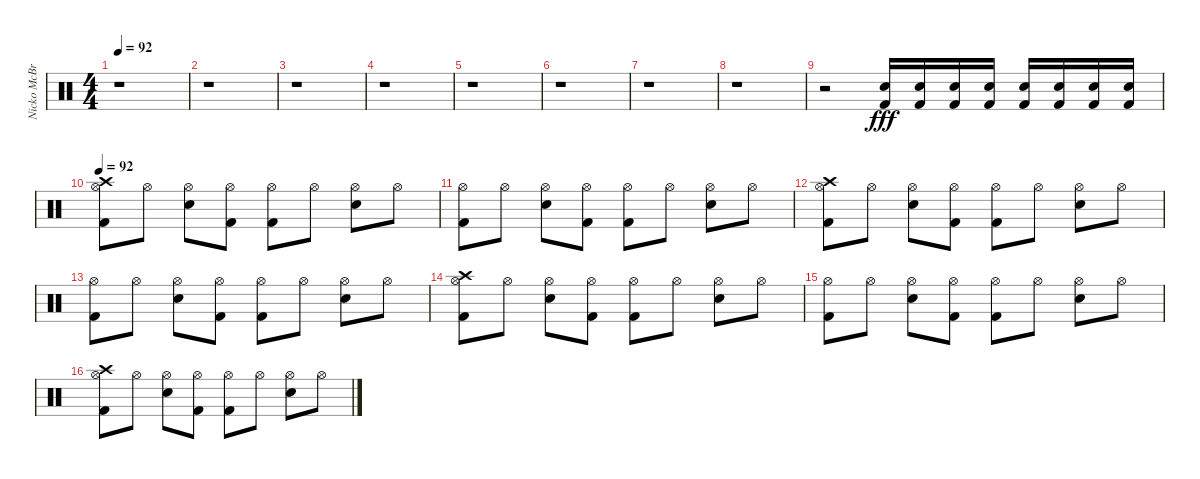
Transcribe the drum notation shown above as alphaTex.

\track ("Nicko McBrain" "Nicko McBr") {instrument percussion}
\staff {score}
\articulation defaults
\ts (4 4)
\tempo 92
\clef neutral
\ks c
r.1{dy fff} |
r.1 |
r.1 |
r.1 |
r.1 |
r.1 |
r.1 |
r.1 |
r.2 ("Kick (hit) 2" "Snare (hit) 2").16 ("Kick (hit) 2" "Snare (hit) 2").16 ("Kick (hit) 2" "Snare (hit) 2").16 ("Kick (hit) 2" "Snare (hit) 2").16 ("Kick (hit) 2" "Snare (hit) 2").16 ("Kick (hit) 2" "Snare (hit) 2").16 ("Kick (hit) 2" "Snare (hit) 2").16 ("Kick (hit) 2" "Snare (hit) 2").16 |
\tempo 92
("Hi-Hat (open)" "Kick (hit) 2" "Crash high (hit)").8 "Hi-Hat (open)".8 ("Hi-Hat (open)" "Snare (hit) 2").8 ("Hi-Hat (open)" "Kick (hit) 2").8 ("Hi-Hat (open)" "Kick (hit) 2").8 "Hi-Hat (open)".8 ("Hi-Hat (open)" "Snare (hit) 2").8 "Hi-Hat (open)".8 |
("Hi-Hat (open)" "Kick (hit) 2").8 "Hi-Hat (open)".8 ("Hi-Hat (open)" "Snare (hit) 2").8 ("Hi-Hat (open)" "Kick (hit) 2").8 ("Hi-Hat (open)" "Kick (hit) 2").8 "Hi-Hat (open)".8 ("Hi-Hat (open)" "Snare (hit) 2").8 "Hi-Hat (open)".8 |
("Hi-Hat (open)" "Kick (hit) 2" "Crash high (hit)").8 "Hi-Hat (open)".8 ("Hi-Hat (open)" "Snare (hit) 2").8 ("Hi-Hat (open)" "Kick (hit) 2").8 ("Hi-Hat (open)" "Kick (hit) 2").8 "Hi-Hat (open)".8 ("Hi-Hat (open)" "Snare (hit) 2").8 "Hi-Hat (open)".8 |
("Hi-Hat (open)" "Kick (hit) 2").8 "Hi-Hat (open)".8 ("Hi-Hat (open)" "Snare (hit) 2").8 ("Hi-Hat (open)" "Kick (hit) 2").8 ("Hi-Hat (open)" "Kick (hit) 2").8 "Hi-Hat (open)".8 ("Hi-Hat (open)" "Snare (hit) 2").8 "Hi-Hat (open)".8 |
("Hi-Hat (open)" "Kick (hit) 2" "Crash high (hit)").8 "Hi-Hat (open)".8 ("Hi-Hat (open)" "Snare (hit) 2").8 ("Hi-Hat (open)" "Kick (hit) 2").8 ("Hi-Hat (open)" "Kick (hit) 2").8 "Hi-Hat (open)".8 ("Hi-Hat (open)" "Snare (hit) 2").8 "Hi-Hat (open)".8 |
("Hi-Hat (open)" "Kick (hit) 2").8 "Hi-Hat (open)".8 ("Hi-Hat (open)" "Snare (hit) 2").8 ("Hi-Hat (open)" "Kick (hit) 2").8 ("Hi-Hat (open)" "Kick (hit) 2").8 "Hi-Hat (open)".8 ("Hi-Hat (open)" "Snare (hit) 2").8 "Hi-Hat (open)".8 |
("Hi-Hat (open)" "Kick (hit) 2" "Crash high (hit)").8 "Hi-Hat (open)".8 ("Hi-Hat (open)" "Snare (hit) 2").8 ("Hi-Hat (open)" "Kick (hit) 2").8 ("Hi-Hat (open)" "Kick (hit) 2").8 "Hi-Hat (open)".8 ("Hi-Hat (open)" "Snare (hit) 2").8 "Hi-Hat (open)".8
